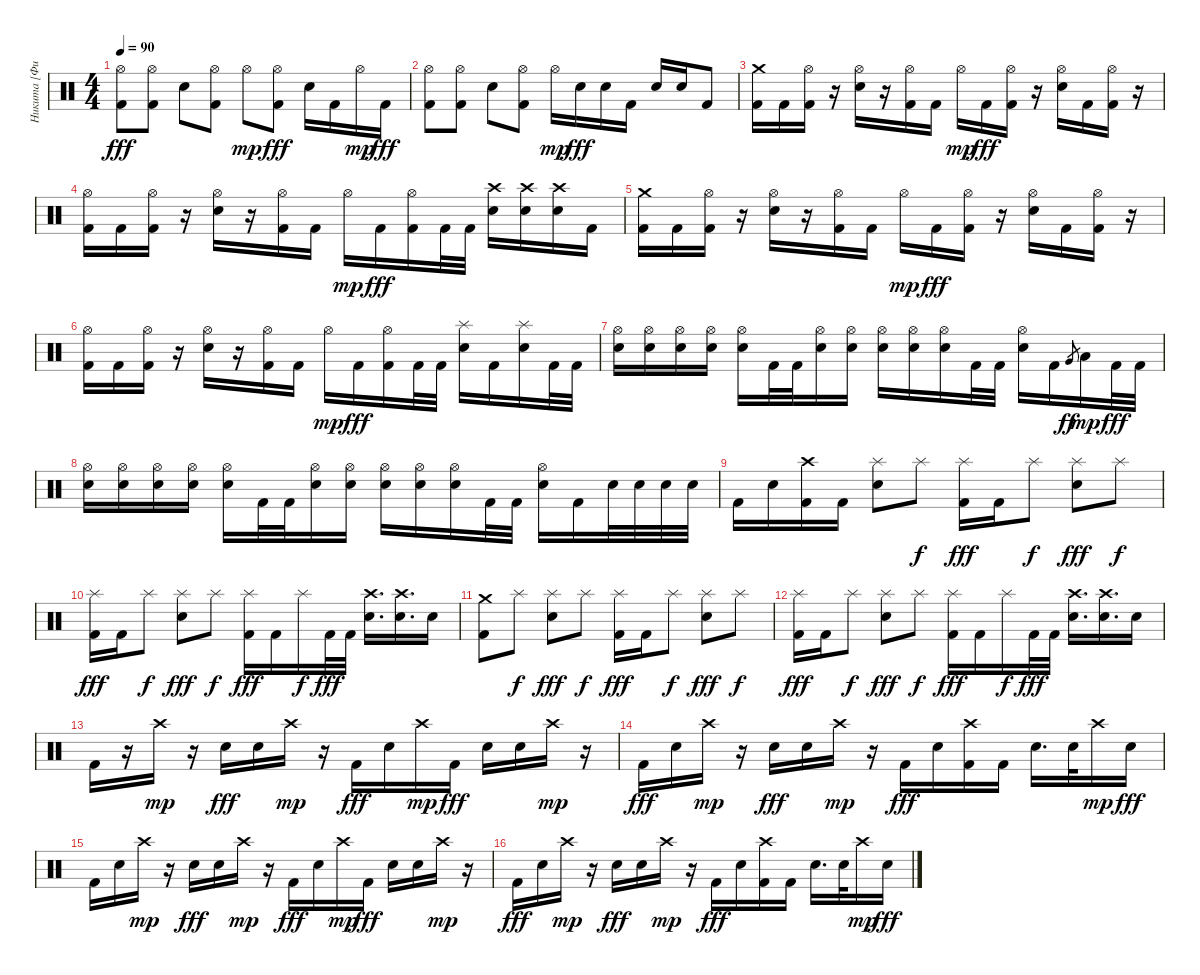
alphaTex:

\track ("Никита [Фил]" "Никита [Фи") {instrument percussion}
\staff {score}
\articulation defaults
\ts (4 4)
\tempo 90
\clef neutral
\ks c
("Hi-Hat (open)" "Kick (hit) 2").8{dy fff} ("Hi-Hat (open)" "Kick (hit) 2").8 "Electric Snare (hit)".8 ("Hi-Hat (open)" "Kick (hit) 2").8 "Hi-Hat (open)".8{dy mp} ("Hi-Hat (open)" "Kick (hit) 2").8{dy fff} "Electric Snare (hit)".16 "Kick (hit) 2".16 "Hi-Hat (open)".16{dy mp} "Kick (hit) 2".16{dy fff} |
("Hi-Hat (open)" "Kick (hit) 2").8 ("Hi-Hat (open)" "Kick (hit) 2").8 "Electric Snare (hit)".8 ("Hi-Hat (open)" "Kick (hit) 2").8 "Hi-Hat (open)".16{dy mp} "Electric Snare (hit)".16{dy fff} "Electric Snare (hit)".16 "Kick (hit) 2".16 "Electric Snare (hit)".16 "Electric Snare (hit)".16 "Kick (hit) 2".8 |
("Crash medium (hit)" "Kick (hit) 2").16 "Kick (hit) 2".16 ("Hi-Hat (open)" "Kick (hit) 2").16 r.16 ("Hi-Hat (open)" "Electric Snare (hit)").16 r.16 ("Hi-Hat (open)" "Kick (hit) 2").16 "Kick (hit) 2".16 "Hi-Hat (open)".16{dy mp} "Kick (hit) 2".16{dy fff} ("Hi-Hat (open)" "Kick (hit) 2").16 r.16 ("Hi-Hat (open)" "Electric Snare (hit)").16 "Kick (hit) 2".16 ("Hi-Hat (open)" "Kick (hit) 2").16 r.16 |
("Hi-Hat (open)" "Kick (hit) 2").16 "Kick (hit) 2".16 ("Hi-Hat (open)" "Kick (hit) 2").16 r.16 ("Hi-Hat (open)" "Electric Snare (hit)").16 r.16 ("Hi-Hat (open)" "Kick (hit) 2").16 "Kick (hit) 2".16 "Hi-Hat (open)".16{dy mp} "Kick (hit) 2".16{dy fff} ("Hi-Hat (open)" "Kick (hit) 2").16 "Kick (hit) 2".32 "Kick (hit) 2".32 ("Crash high (hit)" "Electric Snare (hit)").16 ("Crash high (hit)" "Electric Snare (hit)").16 ("Crash high (hit)" "Electric Snare (hit)").16 "Kick (hit) 2".16 |
("Crash medium (hit)" "Kick (hit) 2").16 "Kick (hit) 2".16 ("Hi-Hat (open)" "Kick (hit) 2").16 r.16 ("Hi-Hat (open)" "Electric Snare (hit)").16 r.16 ("Hi-Hat (open)" "Kick (hit) 2").16 "Kick (hit) 2".16 "Hi-Hat (open)".16{dy mp} "Kick (hit) 2".16{dy fff} ("Hi-Hat (open)" "Kick (hit) 2").16 r.16 ("Hi-Hat (open)" "Electric Snare (hit)").16 "Kick (hit) 2".16 ("Hi-Hat (open)" "Kick (hit) 2").16 r.16 |
("Hi-Hat (open)" "Kick (hit) 2").16 "Kick (hit) 2".16 ("Hi-Hat (open)" "Kick (hit) 2").16 r.16 ("Hi-Hat (open)" "Electric Snare (hit)").16 r.16 ("Hi-Hat (open)" "Kick (hit) 2").16 "Kick (hit) 2".16 "Hi-Hat (open)".16{dy mp} "Kick (hit) 2".16{dy fff} ("Hi-Hat (open)" "Kick (hit) 2").16 "Kick (hit) 2".32 "Kick (hit) 2".32 ("Splash (hit)" "Electric Snare (hit)").16 "Kick (hit) 2".16 ("Splash (hit)" "Electric Snare (hit)").16 "Kick (hit) 2".32 "Kick (hit) 2".32 |
("Hi-Hat (open)" "Electric Snare (hit)").16 ("Hi-Hat (open)" "Electric Snare (hit)").16 ("Hi-Hat (open)" "Electric Snare (hit)").16 ("Hi-Hat (open)" "Electric Snare (hit)").16 ("Hi-Hat (open)" "Electric Snare (hit)").16 "Kick (hit) 2".32 "Kick (hit) 2".32 ("Hi-Hat (open)" "Electric Snare (hit)").16 ("Hi-Hat (open)" "Electric Snare (hit)").16 ("Hi-Hat (open)" "Electric Snare (hit)").16 ("Hi-Hat (open)" "Electric Snare (hit)").16 ("Hi-Hat (open)" "Electric Snare (hit)").16 "Kick (hit) 2".32 "Kick (hit) 2".32 ("Hi-Hat (open)" "Electric Snare (hit)").16 "Kick (hit) 2".16 "Very Low Tom (hit)".8{gr dy ff} "Low Floor Tom (hit)".16{dy mp} "Kick (hit) 2".32{dy fff} "Kick (hit) 2".32 |
("Hi-Hat (open)" "Electric Snare (hit)").16 ("Hi-Hat (open)" "Electric Snare (hit)").16 ("Hi-Hat (open)" "Electric Snare (hit)").16 ("Hi-Hat (open)" "Electric Snare (hit)").16 ("Hi-Hat (open)" "Electric Snare (hit)").16 "Kick (hit) 2".32 "Kick (hit) 2".32 ("Hi-Hat (open)" "Electric Snare (hit)").16 ("Hi-Hat (open)" "Electric Snare (hit)").16 ("Hi-Hat (open)" "Electric Snare (hit)").16 ("Hi-Hat (open)" "Electric Snare (hit)").16 ("Hi-Hat (open)" "Electric Snare (hit)").16 "Kick (hit) 2".32 "Kick (hit) 2".32 ("Hi-Hat (open)" "Electric Snare (hit)").16 "Kick (hit) 2".16 "Electric Snare (hit)".32 "Electric Snare (hit)".32 "Electric Snare (hit)".32 "Electric Snare (hit)".32 |
"Kick (hit) 2".16 "Electric Snare (hit)".16 ("Crash high (hit)" "Kick (hit) 2").16 "Kick (hit) 2".16 ("Splash (hit)" "Electric Snare (hit)").8 "Splash (hit)".8{dy f} ("Splash (hit)" "Kick (hit) 2").16{dy fff} "Kick (hit) 2".16 "Splash (hit)".8{dy f} ("Splash (hit)" "Electric Snare (hit)").8{dy fff} "Splash (hit)".8{dy f} |
("Splash (hit)" "Kick (hit) 2").16{dy fff} "Kick (hit) 2".16 "Splash (hit)".8{dy f} ("Splash (hit)" "Electric Snare (hit)").8{dy fff} "Splash (hit)".8{dy f} ("Splash (hit)" "Kick (hit) 2").16{dy fff} "Kick (hit) 2".16 "Splash (hit)".16{dy f} "Kick (hit) 2".32{dy fff} "Kick (hit) 2".32 ("Crash high (hit)" "Electric Snare (hit)").16{d} ("Crash high (hit)" "Electric Snare (hit)").16{d} "Electric Snare (hit)".16 |
("Crash medium (hit)" "Kick (hit) 2").8 "Splash (hit)".8{dy f} ("Splash (hit)" "Electric Snare (hit)").8{dy fff} "Splash (hit)".8{dy f} ("Splash (hit)" "Kick (hit) 2").16{dy fff} "Kick (hit) 2".16 "Splash (hit)".8{dy f} ("Splash (hit)" "Electric Snare (hit)").8{dy fff} "Splash (hit)".8{dy f} |
("Splash (hit)" "Kick (hit) 2").16{dy fff} "Kick (hit) 2".16 "Splash (hit)".8{dy f} ("Splash (hit)" "Electric Snare (hit)").8{dy fff} "Splash (hit)".8{dy f} ("Splash (hit)" "Kick (hit) 2").16{dy fff} "Kick (hit) 2".16 "Splash (hit)".16{dy f} "Kick (hit) 2".32{dy fff} "Kick (hit) 2".32 ("Crash high (hit)" "Electric Snare (hit)").16{d} ("Crash high (hit)" "Electric Snare (hit)").16{d} "Electric Snare (hit)".16 |
"Kick (hit) 2".16 r.16 "Crash high (hit)".16{dy mp} r.16 "Electric Snare (hit)".16{dy fff} "Electric Snare (hit)".16 "Crash high (hit)".16{dy mp} r.16 "Kick (hit) 2".16{dy fff} "Electric Snare (hit)".16 "Crash high (hit)".16{dy mp} "Kick (hit) 2".16{dy fff} "Electric Snare (hit)".16 "Electric Snare (hit)".16 "Crash high (hit)".16{dy mp} r.16 |
"Kick (hit) 2".16{dy fff} "Electric Snare (hit)".16 "Crash high (hit)".16{dy mp} r.16 "Electric Snare (hit)".16{dy fff} "Electric Snare (hit)".16 "Crash high (hit)".16{dy mp} r.16 "Kick (hit) 2".16{dy fff} "Electric Snare (hit)".16 ("Crash high (hit)" "Kick (hit) 2").16 "Kick (hit) 2".16 "Electric Snare (hit)".16{d} "Electric Snare (hit)".32 "Crash high (hit)".16{dy mp} "Electric Snare (hit)".16{dy fff} |
"Kick (hit) 2".16 "Electric Snare (hit)".16 "Crash high (hit)".16{dy mp} r.16 "Electric Snare (hit)".16{dy fff} "Electric Snare (hit)".16 "Crash high (hit)".16{dy mp} r.16 "Kick (hit) 2".16{dy fff} "Electric Snare (hit)".16 "Crash high (hit)".16{dy mp} "Kick (hit) 2".16{dy fff} "Electric Snare (hit)".16 "Electric Snare (hit)".16 "Crash high (hit)".16{dy mp} r.16 |
"Kick (hit) 2".16{dy fff} "Electric Snare (hit)".16 "Crash high (hit)".16{dy mp} r.16 "Electric Snare (hit)".16{dy fff} "Electric Snare (hit)".16 "Crash high (hit)".16{dy mp} r.16 "Kick (hit) 2".16{dy fff} "Electric Snare (hit)".16 ("Crash high (hit)" "Kick (hit) 2").16 "Kick (hit) 2".16 "Electric Snare (hit)".16{d} "Electric Snare (hit)".32 "Crash high (hit)".16{dy mp} "Electric Snare (hit)".16{dy fff}
